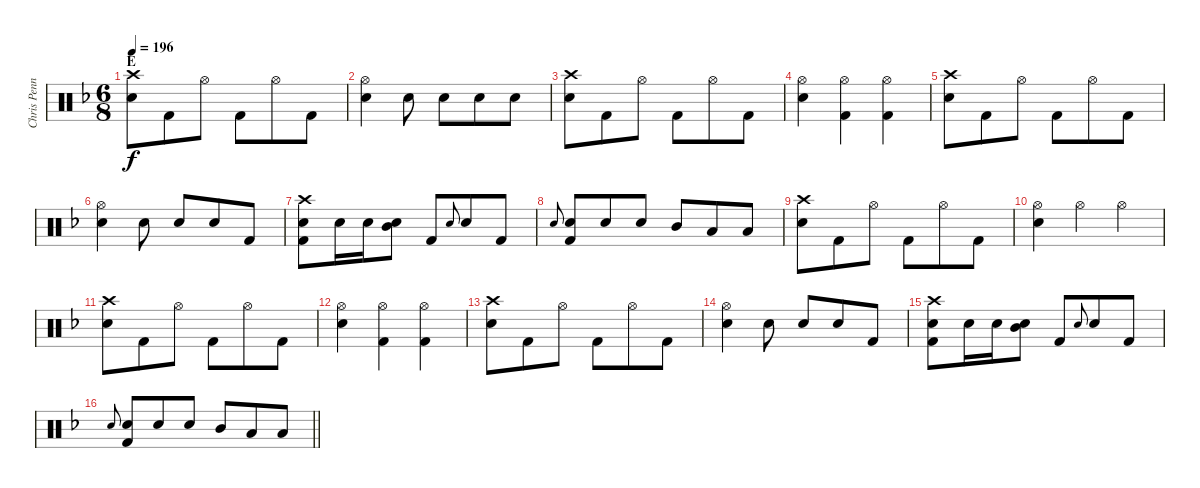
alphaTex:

\track ("Chris Pennie/Taylor Hawkins - Drum" "Chris Penn") {instrument percussion}
\staff {score}
\articulation defaults
\ts (6 8)
\section ("" "E")
\tempo 196
\clef neutral
\ks f
("Crash high (hit)" "Electric Snare (hit)").8{dy f} "Kick (hit) 2".8 "Hi-Hat (open)".8 "Kick (hit) 2".8 "Hi-Hat (open)".8 "Kick (hit) 2".8 |
("Hi-Hat (open)" "Electric Snare (hit)").4 "Electric Snare (hit)".8 "Electric Snare (hit)".8 "Electric Snare (hit)".8 "Electric Snare (hit)".8 |
("Crash high (hit)" "Electric Snare (hit)").8 "Kick (hit) 2".8 "Hi-Hat (open)".8 "Kick (hit) 2".8 "Hi-Hat (open)".8 "Kick (hit) 2".8 |
("Hi-Hat (open)" "Electric Snare (hit)").4 ("Hi-Hat (open)" "Kick (hit) 2").4 ("Hi-Hat (open)" "Kick (hit) 2").4 |
("Crash high (hit)" "Electric Snare (hit)").8 "Kick (hit) 2".8 "Hi-Hat (open)".8 "Kick (hit) 2".8 "Hi-Hat (open)".8 "Kick (hit) 2".8 |
("Hi-Hat (open)" "Electric Snare (hit)").4 "Electric Snare (hit)".8 "Electric Snare (hit)".8 "Electric Snare (hit)".8 "Kick (hit) 2".8 |
("Crash high (hit)" "Electric Snare (hit)" "Kick (hit) 2").8 "Electric Snare (hit)".16 "Electric Snare (hit)".16 ("Electric Snare (hit)" "Mid Tom (hit)").8 "Kick (hit) 2".8 "Electric Snare (hit)".8{gr onbeat} "Electric Snare (hit)".8 "Kick (hit) 2".8 |
"Electric Snare (hit)".8{gr onbeat} ("Electric Snare (hit)" "Kick (hit) 2").8 "Electric Snare (hit)".8 "Electric Snare (hit)".8 "Mid Tom (hit)".8 "Low Tom (hit)".8 "Low Floor Tom (hit)".8 |
("Crash high (hit)" "Electric Snare (hit)").8 "Kick (hit) 2".8 "Hi-Hat (open)".8 "Kick (hit) 2".8 "Hi-Hat (open)".8 "Kick (hit) 2".8 |
("Hi-Hat (open)" "Electric Snare (hit)").4 "Hi-Hat (open)".4 "Hi-Hat (open)".4 |
("Crash high (hit)" "Electric Snare (hit)").8 "Kick (hit) 2".8 "Hi-Hat (open)".8 "Kick (hit) 2".8 "Hi-Hat (open)".8 "Kick (hit) 2".8 |
("Hi-Hat (open)" "Electric Snare (hit)").4 ("Hi-Hat (open)" "Kick (hit) 2").4 ("Hi-Hat (open)" "Kick (hit) 2").4 |
("Crash high (hit)" "Electric Snare (hit)").8 "Kick (hit) 2".8 "Hi-Hat (open)".8 "Kick (hit) 2".8 "Hi-Hat (open)".8 "Kick (hit) 2".8 |
("Hi-Hat (open)" "Electric Snare (hit)").4 "Electric Snare (hit)".8 "Electric Snare (hit)".8 "Electric Snare (hit)".8 "Kick (hit) 2".8 |
("Crash high (hit)" "Electric Snare (hit)" "Kick (hit) 2").8 "Electric Snare (hit)".16 "Electric Snare (hit)".16 ("Electric Snare (hit)" "Mid Tom (hit)").8 "Kick (hit) 2".8 "Electric Snare (hit)".8{gr onbeat} "Electric Snare (hit)".8 "Kick (hit) 2".8 |
\barLineRight lightlight "Electric Snare (hit)".8{gr onbeat}
("Electric Snare (hit)" "Kick (hit) 2").8 "Electric Snare (hit)".8 "Electric Snare (hit)".8 "Mid Tom (hit)".8 "Low Tom (hit)".8 "Low Floor Tom (hit)".8
